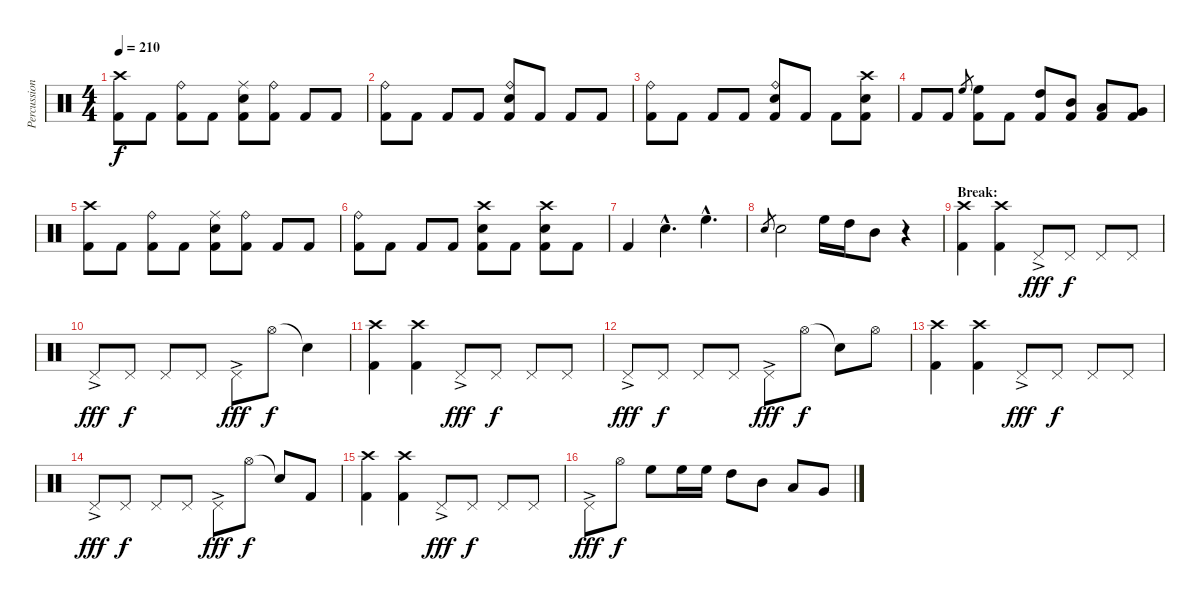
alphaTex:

\track ("Percussion" "Percussion") {instrument percussion}
\staff {score}
\articulation defaults
\ts (4 4)
\tempo 210
\clef neutral
\ks c
("Crash high (hit)" "Kick (hit) 2").8{dy f} "Kick (hit) 2".8 ("Ride (bell)" "Kick (hit) 2").8 "Kick (hit) 2".8 ("Ride (middle)" "Snare (hit) 2" "Kick (hit) 2").8 ("Ride (bell)" "Kick (hit) 2").8 "Kick (hit) 2".8 "Kick (hit) 2".8 |
("Ride (bell)" "Kick (hit) 2").8 "Kick (hit) 2".8 "Kick (hit) 2".8 "Kick (hit) 2".8 ("Ride (bell)" "Snare (hit) 2" "Kick (hit) 2").8 "Kick (hit) 2".8 "Kick (hit) 2".8 "Kick (hit) 2".8 |
("Ride (bell)" "Kick (hit) 2").8 "Kick (hit) 2".8 "Kick (hit) 2".8 "Kick (hit) 2".8 ("Ride (bell)" "Snare (hit) 2" "Kick (hit) 2").8 "Kick (hit) 2".8 "Kick (hit) 2".8 ("Crash high (hit)" "Snare (hit) 2" "Kick (hit) 2").8 |
"Kick (hit) 2".8 "Kick (hit) 2".8 "High Floor Tom (hit)".8{gr} ("High Floor Tom (hit)" "Kick (hit) 2").8 "Kick (hit) 2".8 ("High Tom (hit)" "Kick (hit) 2").8 ("Mid Tom (hit)" "Kick (hit) 2").8 ("Low Tom (hit)" "Kick (hit) 2").8 ("Very Low Tom (hit)" "Kick (hit) 2").8 |
("Crash high (hit)" "Kick (hit) 2").8 "Kick (hit) 2".8 ("Ride (bell)" "Kick (hit) 2").8 "Kick (hit) 2".8 ("Ride (middle)" "Snare (hit) 2" "Kick (hit) 2").8 ("Ride (bell)" "Kick (hit) 2").8 "Kick (hit) 2".8 "Kick (hit) 2".8 |
("Ride (bell)" "Kick (hit) 2").8 "Kick (hit) 2".8 "Kick (hit) 2".8 "Kick (hit) 2".8 ("Crash high (hit)" "Snare (hit) 2" "Kick (hit) 2").8 "Kick (hit) 2".8 ("Crash high (hit)" "Snare (hit) 2" "Kick (hit) 2").8 "Kick (hit) 2".8 |
"Kick (hit) 2".4 "Snare (hit) 2"{hac}.4{d} "High Floor Tom (hit)"{hac}.4{d} |
"Snare (hit) 2".8{gr} "Snare (hit) 2".2 "High Floor Tom (hit)".16 "High Tom (hit)".16 "Mid Tom (hit)".8 r.4 |
\section ("" "Break:")
("Crash high (hit)" "Kick (hit) 2").4 ("Crash high (hit)" "Kick (hit) 2").4 "Pedal Hi-Hat (hit)"{ac}.8{dy fff} "Pedal Hi-Hat (hit)".8{dy f} "Pedal Hi-Hat (hit)".8 "Pedal Hi-Hat (hit)".8 |
"Pedal Hi-Hat (hit)"{ac}.8{dy fff} "Pedal Hi-Hat (hit)".8{dy f} "Pedal Hi-Hat (hit)".8 "Pedal Hi-Hat (hit)".8 "Pedal Hi-Hat (hit)"{ac}.8{dy fff} "Hi-Hat (open)".8{dy f} "Snare (hit)"{t}.4 |
("Crash high (hit)" "Kick (hit) 2").4 ("Crash high (hit)" "Kick (hit) 2").4 "Pedal Hi-Hat (hit)"{ac}.8{dy fff} "Pedal Hi-Hat (hit)".8{dy f} "Pedal Hi-Hat (hit)".8 "Pedal Hi-Hat (hit)".8 |
"Pedal Hi-Hat (hit)"{ac}.8{dy fff} "Pedal Hi-Hat (hit)".8{dy f} "Pedal Hi-Hat (hit)".8 "Pedal Hi-Hat (hit)".8 "Pedal Hi-Hat (hit)"{ac}.8{dy fff} "Hi-Hat (open)".8{dy f} "Snare (hit)"{t}.8 "Hi-Hat (open)".8 |
("Crash high (hit)" "Kick (hit) 2").4 ("Crash high (hit)" "Kick (hit) 2").4 "Pedal Hi-Hat (hit)"{ac}.8{dy fff} "Pedal Hi-Hat (hit)".8{dy f} "Pedal Hi-Hat (hit)".8 "Pedal Hi-Hat (hit)".8 |
"Pedal Hi-Hat (hit)"{ac}.8{dy fff} "Pedal Hi-Hat (hit)".8{dy f} "Pedal Hi-Hat (hit)".8 "Pedal Hi-Hat (hit)".8 "Pedal Hi-Hat (hit)"{ac}.8{dy fff} "Hi-Hat (open)".8{dy f} "Snare (hit)"{t}.8 "Kick (hit) 2".8 |
("Crash high (hit)" "Kick (hit) 2").4 ("Crash high (hit)" "Kick (hit) 2").4 "Pedal Hi-Hat (hit)"{ac}.8{dy fff} "Pedal Hi-Hat (hit)".8{dy f} "Pedal Hi-Hat (hit)".8 "Pedal Hi-Hat (hit)".8 |
"Pedal Hi-Hat (hit)"{ac}.8{dy fff} "Hi-Hat (open)".8{dy f} "High Floor Tom (hit)".8 "High Floor Tom (hit)".16 "High Floor Tom (hit)".16 "High Tom (hit)".8 "Mid Tom (hit)".8 "Low Tom (hit)".8 "Very Low Tom (hit)".8
